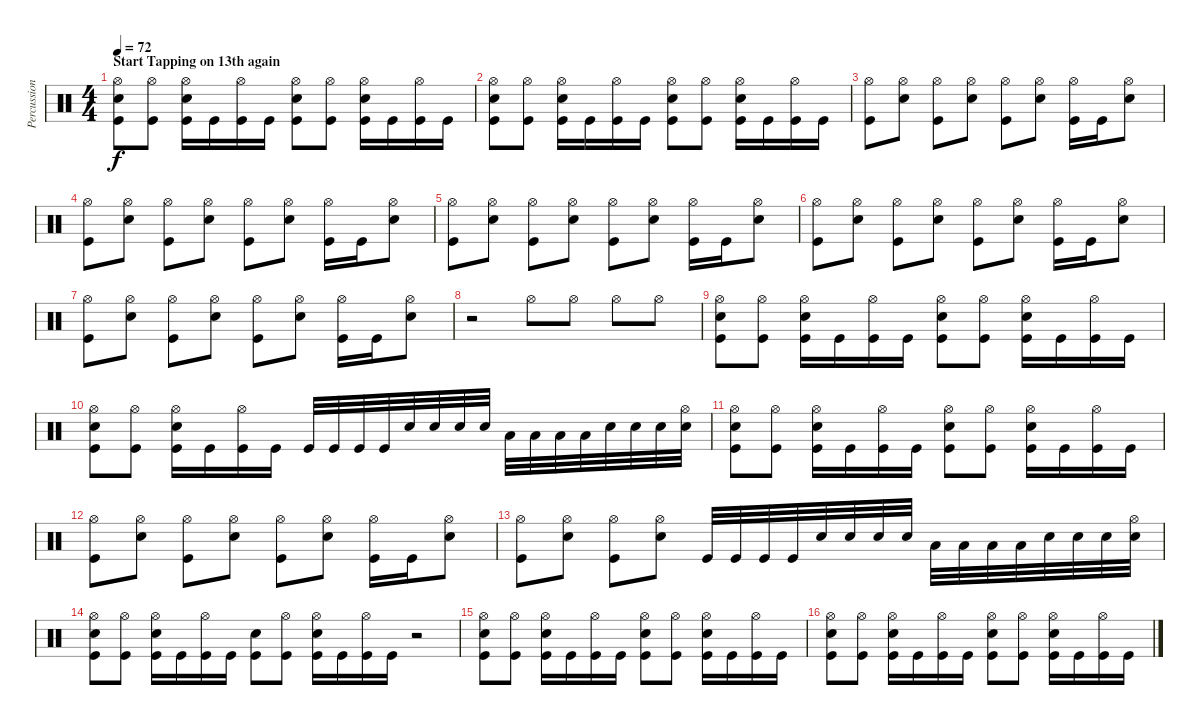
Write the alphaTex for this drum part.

\track ("Percussion" "Percussion") {instrument percussion}
\staff {score}
\articulation defaults
\ts (4 4)
\section ("" "Start Tapping on 13th again")
\tempo 72
\clef neutral
\ks c
("Kick (hit)" "Snare (hit) 2" "Hi-Hat (open)").8{dy f} ("Kick (hit)" "Hi-Hat (open)").8 ("Kick (hit)" "Snare (hit) 2" "Hi-Hat (open)").16 "Kick (hit)".16 ("Kick (hit)" "Hi-Hat (open)").16 "Kick (hit)".16 ("Kick (hit)" "Snare (hit) 2" "Hi-Hat (open)").8 ("Kick (hit)" "Hi-Hat (open)").8 ("Kick (hit)" "Snare (hit) 2" "Hi-Hat (open)").16 "Kick (hit)".16 ("Kick (hit)" "Hi-Hat (open)").16 "Kick (hit)".16 |
("Kick (hit)" "Snare (hit) 2" "Hi-Hat (open)").8 ("Kick (hit)" "Hi-Hat (open)").8 ("Kick (hit)" "Snare (hit) 2" "Hi-Hat (open)").16 "Kick (hit)".16 ("Kick (hit)" "Hi-Hat (open)").16 "Kick (hit)".16 ("Kick (hit)" "Snare (hit) 2" "Hi-Hat (open)").8 ("Kick (hit)" "Hi-Hat (open)").8 ("Kick (hit)" "Snare (hit) 2" "Hi-Hat (open)").16 "Kick (hit)".16 ("Kick (hit)" "Hi-Hat (open)").16 "Kick (hit)".16 |
("Kick (hit)" "Hi-Hat (open)").8 ("Snare (hit) 2" "Hi-Hat (open)").8 ("Kick (hit)" "Hi-Hat (open)").8 ("Snare (hit) 2" "Hi-Hat (open)").8 ("Kick (hit)" "Hi-Hat (open)").8 ("Snare (hit) 2" "Hi-Hat (open)").8 ("Kick (hit)" "Hi-Hat (open)").16 "Kick (hit)".16 ("Snare (hit) 2" "Hi-Hat (open)").8 |
("Kick (hit)" "Hi-Hat (open)").8 ("Snare (hit) 2" "Hi-Hat (open)").8 ("Kick (hit)" "Hi-Hat (open)").8 ("Snare (hit) 2" "Hi-Hat (open)").8 ("Kick (hit)" "Hi-Hat (open)").8 ("Snare (hit) 2" "Hi-Hat (open)").8 ("Kick (hit)" "Hi-Hat (open)").16 "Kick (hit)".16 ("Snare (hit) 2" "Hi-Hat (open)").8 |
("Kick (hit)" "Hi-Hat (open)").8 ("Snare (hit) 2" "Hi-Hat (open)").8 ("Kick (hit)" "Hi-Hat (open)").8 ("Snare (hit) 2" "Hi-Hat (open)").8 ("Kick (hit)" "Hi-Hat (open)").8 ("Snare (hit) 2" "Hi-Hat (open)").8 ("Kick (hit)" "Hi-Hat (open)").16 "Kick (hit)".16 ("Snare (hit) 2" "Hi-Hat (open)").8 |
("Kick (hit)" "Hi-Hat (open)").8 ("Snare (hit) 2" "Hi-Hat (open)").8 ("Kick (hit)" "Hi-Hat (open)").8 ("Snare (hit) 2" "Hi-Hat (open)").8 ("Kick (hit)" "Hi-Hat (open)").8 ("Snare (hit) 2" "Hi-Hat (open)").8 ("Kick (hit)" "Hi-Hat (open)").16 "Kick (hit)".16 ("Snare (hit) 2" "Hi-Hat (open)").8 |
("Kick (hit)" "Hi-Hat (open)").8 ("Snare (hit) 2" "Hi-Hat (open)").8 ("Kick (hit)" "Hi-Hat (open)").8 ("Snare (hit) 2" "Hi-Hat (open)").8 ("Kick (hit)" "Hi-Hat (open)").8 ("Snare (hit) 2" "Hi-Hat (open)").8 ("Kick (hit)" "Hi-Hat (open)").16 "Kick (hit)".16 ("Snare (hit) 2" "Hi-Hat (open)").8 |
r.2 "Hi-Hat (open)".8 "Hi-Hat (open)".8 "Hi-Hat (open)".8 "Hi-Hat (open)".8 |
("Kick (hit)" "Snare (hit) 2" "Hi-Hat (open)").8 ("Kick (hit)" "Hi-Hat (open)").8 ("Kick (hit)" "Snare (hit) 2" "Hi-Hat (open)").16 "Kick (hit)".16 ("Kick (hit)" "Hi-Hat (open)").16 "Kick (hit)".16 ("Kick (hit)" "Snare (hit) 2" "Hi-Hat (open)").8 ("Kick (hit)" "Hi-Hat (open)").8 ("Kick (hit)" "Snare (hit) 2" "Hi-Hat (open)").16 "Kick (hit)".16 ("Kick (hit)" "Hi-Hat (open)").16 "Kick (hit)".16 |
("Kick (hit)" "Snare (hit) 2" "Hi-Hat (open)").8 ("Kick (hit)" "Hi-Hat (open)").8 ("Kick (hit)" "Snare (hit) 2" "Hi-Hat (open)").16 "Kick (hit)".16 ("Kick (hit)" "Hi-Hat (open)").16 "Kick (hit)".16 "Kick (hit)".32 "Kick (hit)".32 "Kick (hit)".32 "Kick (hit)".32 "Snare (hit) 2".32 "Snare (hit) 2".32 "Snare (hit) 2".32 "Snare (hit) 2".32 "Low Floor Tom (hit)".32 "Low Floor Tom (hit)".32 "Low Floor Tom (hit)".32 "Low Floor Tom (hit)".32 "Snare (hit) 2".32 "Snare (hit) 2".32 "Snare (hit) 2".32 ("Snare (hit) 2" "Hi-Hat (open)").32 |
("Kick (hit)" "Snare (hit) 2" "Hi-Hat (open)").8 ("Kick (hit)" "Hi-Hat (open)").8 ("Kick (hit)" "Snare (hit) 2" "Hi-Hat (open)").16 "Kick (hit)".16 ("Kick (hit)" "Hi-Hat (open)").16 "Kick (hit)".16 ("Kick (hit)" "Snare (hit) 2" "Hi-Hat (open)").8 ("Kick (hit)" "Hi-Hat (open)").8 ("Kick (hit)" "Snare (hit) 2" "Hi-Hat (open)").16 "Kick (hit)".16 ("Kick (hit)" "Hi-Hat (open)").16 "Kick (hit)".16 |
("Kick (hit)" "Hi-Hat (open)").8 ("Snare (hit) 2" "Hi-Hat (open)").8 ("Kick (hit)" "Hi-Hat (open)").8 ("Snare (hit) 2" "Hi-Hat (open)").8 ("Kick (hit)" "Hi-Hat (open)").8 ("Snare (hit) 2" "Hi-Hat (open)").8 ("Kick (hit)" "Hi-Hat (open)").16 "Kick (hit)".16 ("Snare (hit) 2" "Hi-Hat (open)").8 |
("Kick (hit)" "Hi-Hat (open)").8 ("Snare (hit) 2" "Hi-Hat (open)").8 ("Kick (hit)" "Hi-Hat (open)").8 ("Snare (hit) 2" "Hi-Hat (open)").8 "Kick (hit)".32 "Kick (hit)".32 "Kick (hit)".32 "Kick (hit)".32 "Snare (hit) 2".32 "Snare (hit) 2".32 "Snare (hit) 2".32 "Snare (hit) 2".32 "Low Floor Tom (hit)".32 "Low Floor Tom (hit)".32 "Low Floor Tom (hit)".32 "Low Floor Tom (hit)".32 "Snare (hit) 2".32 "Snare (hit) 2".32 "Snare (hit) 2".32 ("Snare (hit) 2" "Hi-Hat (open)").32 |
("Kick (hit)" "Snare (hit) 2" "Hi-Hat (open)").8 ("Kick (hit)" "Hi-Hat (open)").8 ("Kick (hit)" "Snare (hit) 2" "Hi-Hat (open)").16 "Kick (hit)".16 ("Kick (hit)" "Hi-Hat (open)").16 "Kick (hit)".16 ("Kick (hit)" "Snare (hit) 2").8 ("Kick (hit)" "Hi-Hat (open)").8 ("Kick (hit)" "Snare (hit) 2" "Hi-Hat (open)").16 "Kick (hit)".16 ("Kick (hit)" "Hi-Hat (open)").16 "Kick (hit)".16 r.2 |
("Kick (hit)" "Snare (hit) 2" "Hi-Hat (open)").8 ("Kick (hit)" "Hi-Hat (open)").8 ("Kick (hit)" "Snare (hit) 2" "Hi-Hat (open)").16 "Kick (hit)".16 ("Kick (hit)" "Hi-Hat (open)").16 "Kick (hit)".16 ("Kick (hit)" "Snare (hit) 2" "Hi-Hat (open)").8 ("Kick (hit)" "Hi-Hat (open)").8 ("Kick (hit)" "Snare (hit) 2" "Hi-Hat (open)").16 "Kick (hit)".16 ("Kick (hit)" "Hi-Hat (open)").16 "Kick (hit)".16 |
("Kick (hit)" "Snare (hit) 2" "Hi-Hat (open)").8 ("Kick (hit)" "Hi-Hat (open)").8 ("Kick (hit)" "Snare (hit) 2" "Hi-Hat (open)").16 "Kick (hit)".16 ("Kick (hit)" "Hi-Hat (open)").16 "Kick (hit)".16 ("Kick (hit)" "Snare (hit) 2" "Hi-Hat (open)").8 ("Kick (hit)" "Hi-Hat (open)").8 ("Kick (hit)" "Snare (hit) 2" "Hi-Hat (open)").16 "Kick (hit)".16 ("Kick (hit)" "Hi-Hat (open)").16 "Kick (hit)".16
